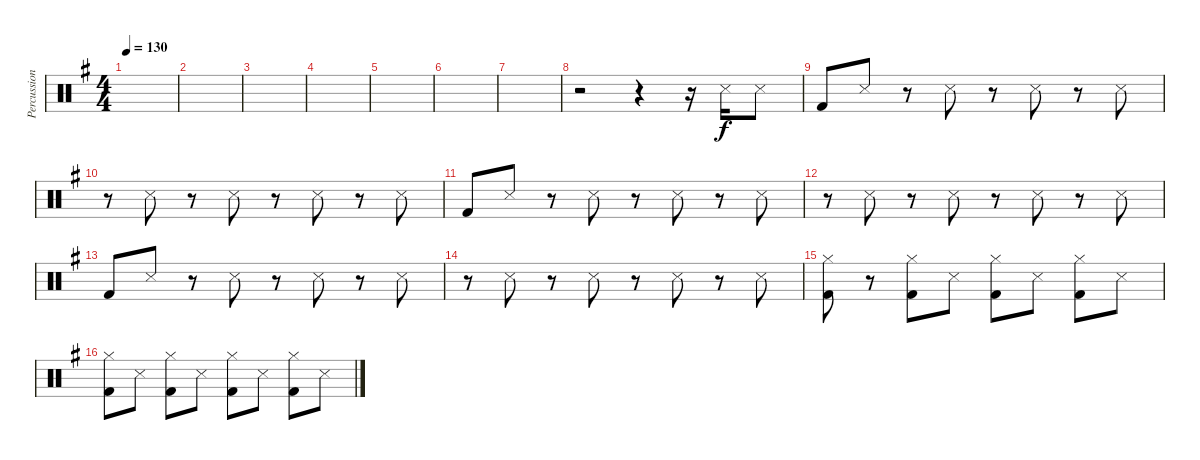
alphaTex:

\track ("Percussions" "Percussion") {instrument percussion}
\staff {score}
\articulation defaults
\ts (4 4)
\tempo 130
\clef neutral
\ks g
|
|
|
|
|
|
|
r.2 r.4 r.16 "Snare (side stick) 3".16 "Snare (side stick) 3".8 |
"Kick (hit) 2".8 "Snare (side stick) 3".8 r.8 "Snare (side stick) 3".8 r.8 "Snare (side stick) 3".8 r.8 "Snare (side stick) 3".8 |
r.8 "Snare (side stick) 3".8 r.8 "Snare (side stick) 3".8 r.8 "Snare (side stick) 3".8 r.8 "Snare (side stick) 3".8 |
"Kick (hit) 2".8 "Snare (side stick) 3".8 r.8 "Snare (side stick) 3".8 r.8 "Snare (side stick) 3".8 r.8 "Snare (side stick) 3".8 |
r.8 "Snare (side stick) 3".8 r.8 "Snare (side stick) 3".8 r.8 "Snare (side stick) 3".8 r.8 "Snare (side stick) 3".8 |
"Kick (hit) 2".8 "Snare (side stick) 3".8 r.8 "Snare (side stick) 3".8 r.8 "Snare (side stick) 3".8 r.8 "Snare (side stick) 3".8 |
r.8 "Snare (side stick) 3".8 r.8 "Snare (side stick) 3".8 r.8 "Snare (side stick) 3".8 r.8 "Snare (side stick) 3".8 |
("Hi-Hat (closed)" "Kick (hit) 2").8 r.8 ("Hi-Hat (closed)" "Kick (hit) 2").8 "Snare (side stick) 3".8 ("Hi-Hat (closed)" "Kick (hit) 2").8 "Snare (side stick) 3".8 ("Hi-Hat (closed)" "Kick (hit) 2").8 "Snare (side stick) 3".8 |
("Hi-Hat (closed)" "Kick (hit) 2").8 "Snare (side stick) 3".8 ("Hi-Hat (closed)" "Kick (hit) 2").8 "Snare (side stick) 3".8 ("Hi-Hat (closed)" "Kick (hit) 2").8 "Snare (side stick) 3".8 ("Hi-Hat (closed)" "Kick (hit) 2").8 "Snare (side stick) 3".8
